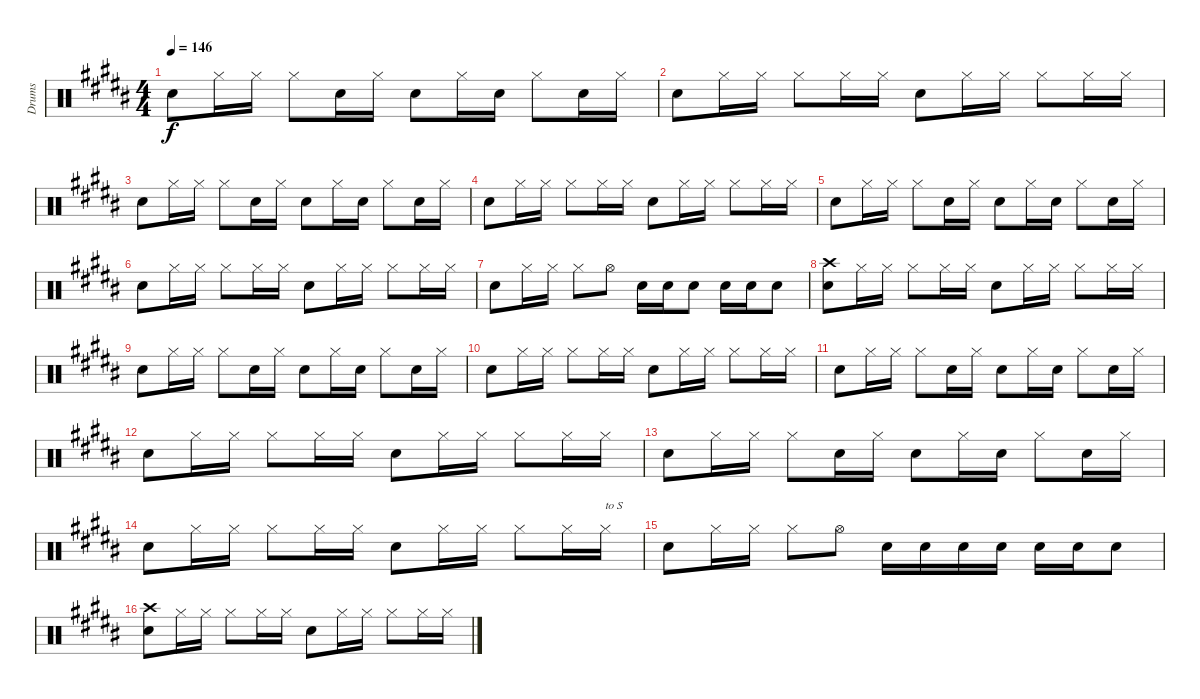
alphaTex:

\track ("Drums" "Drums") {instrument percussion}
\staff {score}
\articulation defaults
\ts (4 4)
\tempo 146
\clef neutral
\ks b "Snare (hit) 2".8{dy f} "Hi-Hat (closed)".16 "Hi-Hat (closed)".16 "Hi-Hat (closed)".8 "Snare (hit) 2".16 "Hi-Hat (closed)".16 "Snare (hit) 2".8 "Hi-Hat (closed)".16 "Snare (hit) 2".16 "Hi-Hat (closed)".8 "Snare (hit) 2".16 "Hi-Hat (closed)".16
|
"Snare (hit) 2".8 "Hi-Hat (closed)".16 "Hi-Hat (closed)".16 "Hi-Hat (closed)".8 "Hi-Hat (closed)".16 "Hi-Hat (closed)".16 "Snare (hit) 2".8 "Hi-Hat (closed)".16 "Hi-Hat (closed)".16 "Hi-Hat (closed)".8 "Hi-Hat (closed)".16 "Hi-Hat (closed)".16 |
"Snare (hit) 2".8 "Hi-Hat (closed)".16 "Hi-Hat (closed)".16 "Hi-Hat (closed)".8 "Snare (hit) 2".16 "Hi-Hat (closed)".16 "Snare (hit) 2".8 "Hi-Hat (closed)".16 "Snare (hit) 2".16 "Hi-Hat (closed)".8 "Snare (hit) 2".16 "Hi-Hat (closed)".16 |
"Snare (hit) 2".8 "Hi-Hat (closed)".16 "Hi-Hat (closed)".16 "Hi-Hat (closed)".8 "Hi-Hat (closed)".16 "Hi-Hat (closed)".16 "Snare (hit) 2".8 "Hi-Hat (closed)".16 "Hi-Hat (closed)".16 "Hi-Hat (closed)".8 "Hi-Hat (closed)".16 "Hi-Hat (closed)".16 |
"Snare (hit) 2".8 "Hi-Hat (closed)".16 "Hi-Hat (closed)".16 "Hi-Hat (closed)".8 "Snare (hit) 2".16 "Hi-Hat (closed)".16 "Snare (hit) 2".8 "Hi-Hat (closed)".16 "Snare (hit) 2".16 "Hi-Hat (closed)".8 "Snare (hit) 2".16 "Hi-Hat (closed)".16 |
"Snare (hit) 2".8 "Hi-Hat (closed)".16 "Hi-Hat (closed)".16 "Hi-Hat (closed)".8 "Hi-Hat (closed)".16 "Hi-Hat (closed)".16 "Snare (hit) 2".8 "Hi-Hat (closed)".16 "Hi-Hat (closed)".16 "Hi-Hat (closed)".8 "Hi-Hat (closed)".16 "Hi-Hat (closed)".16 |
"Snare (hit) 2".8 "Hi-Hat (closed)".16 "Hi-Hat (closed)".16 "Hi-Hat (closed)".8 "Hi-Hat (open)".8 "Snare (hit) 2".16 "Snare (hit) 2".16 "Snare (hit) 2".8 "Snare (hit) 2".16 "Snare (hit) 2".16 "Snare (hit) 2".8 |
("Crash high (hit)" "Snare (hit) 2").8 "Hi-Hat (closed)".16 "Hi-Hat (closed)".16 "Hi-Hat (closed)".8 "Hi-Hat (closed)".16 "Hi-Hat (closed)".16 "Snare (hit) 2".8 "Hi-Hat (closed)".16 "Hi-Hat (closed)".16 "Hi-Hat (closed)".8 "Hi-Hat (closed)".16 "Hi-Hat (closed)".16 |
"Snare (hit) 2".8 "Hi-Hat (closed)".16 "Hi-Hat (closed)".16 "Hi-Hat (closed)".8 "Snare (hit) 2".16 "Hi-Hat (closed)".16 "Snare (hit) 2".8 "Hi-Hat (closed)".16 "Snare (hit) 2".16 "Hi-Hat (closed)".8 "Snare (hit) 2".16 "Hi-Hat (closed)".16 |
"Snare (hit) 2".8 "Hi-Hat (closed)".16 "Hi-Hat (closed)".16 "Hi-Hat (closed)".8 "Hi-Hat (closed)".16 "Hi-Hat (closed)".16 "Snare (hit) 2".8 "Hi-Hat (closed)".16 "Hi-Hat (closed)".16 "Hi-Hat (closed)".8 "Hi-Hat (closed)".16 "Hi-Hat (closed)".16 |
"Snare (hit) 2".8 "Hi-Hat (closed)".16 "Hi-Hat (closed)".16 "Hi-Hat (closed)".8 "Snare (hit) 2".16 "Hi-Hat (closed)".16 "Snare (hit) 2".8 "Hi-Hat (closed)".16 "Snare (hit) 2".16 "Hi-Hat (closed)".8 "Snare (hit) 2".16 "Hi-Hat (closed)".16 |
"Snare (hit) 2".8 "Hi-Hat (closed)".16 "Hi-Hat (closed)".16 "Hi-Hat (closed)".8 "Hi-Hat (closed)".16 "Hi-Hat (closed)".16 "Snare (hit) 2".8 "Hi-Hat (closed)".16 "Hi-Hat (closed)".16 "Hi-Hat (closed)".8 "Hi-Hat (closed)".16 "Hi-Hat (closed)".16 |
"Snare (hit) 2".8 "Hi-Hat (closed)".16 "Hi-Hat (closed)".16 "Hi-Hat (closed)".8 "Snare (hit) 2".16 "Hi-Hat (closed)".16 "Snare (hit) 2".8 "Hi-Hat (closed)".16 "Snare (hit) 2".16 "Hi-Hat (closed)".8 "Snare (hit) 2".16 "Hi-Hat (closed)".16 |
"Snare (hit) 2".8 "Hi-Hat (closed)".16 "Hi-Hat (closed)".16 "Hi-Hat (closed)".8 "Hi-Hat (closed)".16 "Hi-Hat (closed)".16 "Snare (hit) 2".8 "Hi-Hat (closed)".16 "Hi-Hat (closed)".16 "Hi-Hat (closed)".8 "Hi-Hat (closed)".16 "Hi-Hat (closed)".16{txt "to S"} |
"Snare (hit) 2".8 "Hi-Hat (closed)".16 "Hi-Hat (closed)".16 "Hi-Hat (closed)".8 "Hi-Hat (open)".8 "Snare (hit) 2".16 "Snare (hit) 2".16 "Snare (hit) 2".16 "Snare (hit) 2".16 "Snare (hit) 2".16 "Snare (hit) 2".16 "Snare (hit) 2".8 |
("Crash high (hit)" "Snare (hit) 2").8 "Hi-Hat (closed)".16 "Hi-Hat (closed)".16 "Hi-Hat (closed)".8 "Hi-Hat (closed)".16 "Hi-Hat (closed)".16 "Snare (hit) 2".8 "Hi-Hat (closed)".16 "Hi-Hat (closed)".16 "Hi-Hat (closed)".8 "Hi-Hat (closed)".16 "Hi-Hat (closed)".16
